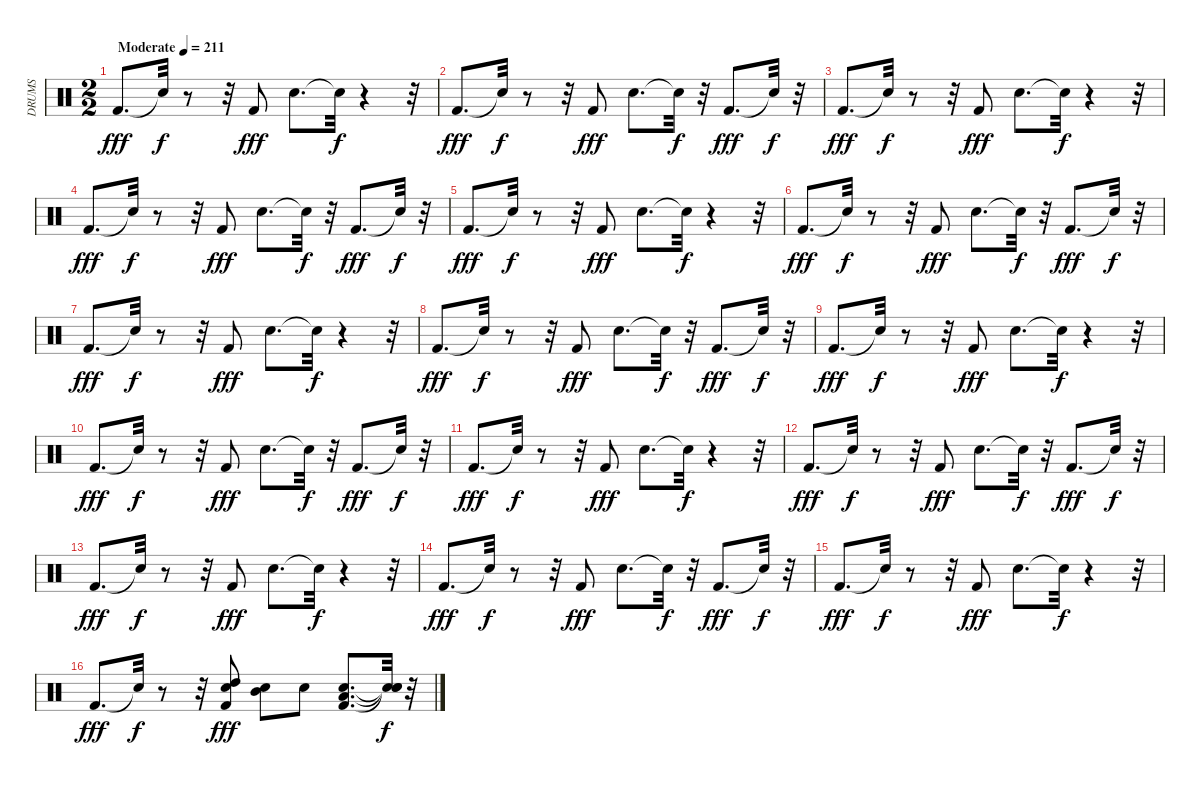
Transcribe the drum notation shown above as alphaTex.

\track ("DRUMS" "DRUMS") {instrument percussion}
\staff {score}
\articulation defaults
\ts (2 2)
\tempo (211 "Moderate")
\clef neutral
\ks c "Kick (hit) 2".8{d dy fff} "Snare (hit)"{t}.32{dy f}
r.8 r.32 "Kick (hit) 2".8{dy fff} "Snare (hit) 2".8{d} "Snare (hit)"{t}.32{dy f} r.4 r.32 |
"Kick (hit) 2".8{d dy fff} "Snare (hit)"{t}.32{dy f} r.8 r.32 "Kick (hit) 2".8{dy fff} "Snare (hit) 2".8{d} "Snare (hit)"{t}.32{dy f} r.32 "Kick (hit) 2".8{d dy fff} "Snare (hit)"{t}.32{dy f} r.32 |
"Kick (hit) 2".8{d dy fff} "Snare (hit)"{t}.32{dy f} r.8 r.32 "Kick (hit) 2".8{dy fff} "Snare (hit) 2".8{d} "Snare (hit)"{t}.32{dy f} r.4 r.32 |
"Kick (hit) 2".8{d dy fff} "Snare (hit)"{t}.32{dy f} r.8 r.32 "Kick (hit) 2".8{dy fff} "Snare (hit) 2".8{d} "Snare (hit)"{t}.32{dy f} r.32 "Kick (hit) 2".8{d dy fff} "Snare (hit)"{t}.32{dy f} r.32 |
"Kick (hit) 2".8{d dy fff} "Snare (hit)"{t}.32{dy f} r.8 r.32 "Kick (hit) 2".8{dy fff} "Snare (hit) 2".8{d} "Snare (hit)"{t}.32{dy f} r.4 r.32 |
"Kick (hit) 2".8{d dy fff} "Snare (hit)"{t}.32{dy f} r.8 r.32 "Kick (hit) 2".8{dy fff} "Snare (hit) 2".8{d} "Snare (hit)"{t}.32{dy f} r.32 "Kick (hit) 2".8{d dy fff} "Snare (hit)"{t}.32{dy f} r.32 |
"Kick (hit) 2".8{d dy fff} "Snare (hit)"{t}.32{dy f} r.8 r.32 "Kick (hit) 2".8{dy fff} "Snare (hit) 2".8{d} "Snare (hit)"{t}.32{dy f} r.4 r.32 |
"Kick (hit) 2".8{d dy fff} "Snare (hit)"{t}.32{dy f} r.8 r.32 "Kick (hit) 2".8{dy fff} "Snare (hit) 2".8{d} "Snare (hit)"{t}.32{dy f} r.32 "Kick (hit) 2".8{d dy fff} "Snare (hit)"{t}.32{dy f} r.32 |
"Kick (hit) 2".8{d dy fff} "Snare (hit)"{t}.32{dy f} r.8 r.32 "Kick (hit) 2".8{dy fff} "Snare (hit) 2".8{d} "Snare (hit)"{t}.32{dy f} r.4 r.32 |
"Kick (hit) 2".8{d dy fff} "Snare (hit)"{t}.32{dy f} r.8 r.32 "Kick (hit) 2".8{dy fff} "Snare (hit) 2".8{d} "Snare (hit)"{t}.32{dy f} r.32 "Kick (hit) 2".8{d dy fff} "Snare (hit)"{t}.32{dy f} r.32 |
"Kick (hit) 2".8{d dy fff} "Snare (hit)"{t}.32{dy f} r.8 r.32 "Kick (hit) 2".8{dy fff} "Snare (hit) 2".8{d} "Snare (hit)"{t}.32{dy f} r.4 r.32 |
"Kick (hit) 2".8{d dy fff} "Snare (hit)"{t}.32{dy f} r.8 r.32 "Kick (hit) 2".8{dy fff} "Snare (hit) 2".8{d} "Snare (hit)"{t}.32{dy f} r.32 "Kick (hit) 2".8{d dy fff} "Snare (hit)"{t}.32{dy f} r.32 |
"Kick (hit) 2".8{d dy fff} "Snare (hit)"{t}.32{dy f} r.8 r.32 "Kick (hit) 2".8{dy fff} "Snare (hit) 2".8{d} "Snare (hit)"{t}.32{dy f} r.4 r.32 |
"Kick (hit) 2".8{d dy fff} "Snare (hit)"{t}.32{dy f} r.8 r.32 "Kick (hit) 2".8{dy fff} "Snare (hit) 2".8{d} "Snare (hit)"{t}.32{dy f} r.32 "Kick (hit) 2".8{d dy fff} "Snare (hit)"{t}.32{dy f} r.32 |
"Kick (hit) 2".8{d dy fff} "Snare (hit)"{t}.32{dy f} r.8 r.32 "Kick (hit) 2".8{dy fff} "Snare (hit) 2".8{d} "Snare (hit)"{t}.32{dy f} r.4 r.32 |
"Kick (hit) 2".8{d dy fff} "Snare (hit)"{t}.32{dy f} r.8 r.32 ("High Tom (hit)" "Snare (hit) 2" "Kick (hit) 2").8{dy fff} ("Mid Tom (hit)" "Snare (hit) 2").8 "Snare (hit) 2".8 ("Low Tom (hit)" "Kick (hit) 2" "Snare (hit) 2").8{d} ("Snare (hit)"{t} "Snare (hit)"{t} "Snare (hit)"{t}).32{dy f} r.32
